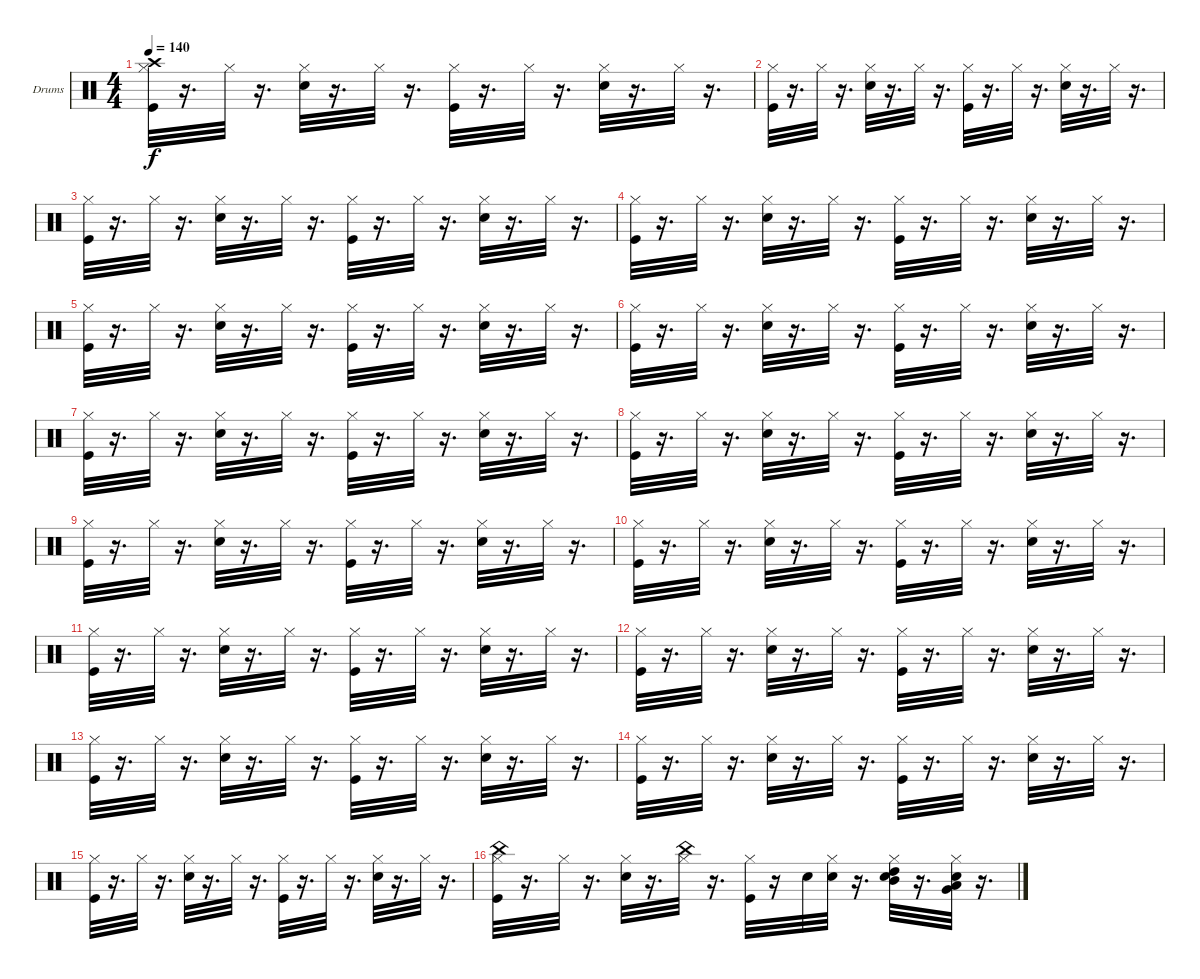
\bracketExtendMode groupsimilarinstruments
\firstSystemTrackNameOrientation horizontal
\otherSystemsTrackNameOrientation horizontal
\track ("" "Drums") {instrument percussion}
\staff {score}
\articulation defaults
\ts (4 4)
\tempo 140
\clef neutral
\ks c
("Hi-Hat (closed)" "Kick (hit)" "Crash high (hit)").32{dy f} r.16{d} "Hi-Hat (closed)".32 r.16{d} ("Snare (hit) 2" "Hi-Hat (closed)").32 r.16{d} "Hi-Hat (closed)".32 r.16{d} ("Kick (hit)" "Hi-Hat (closed)").32 r.16{d} "Hi-Hat (closed)".32 r.16{d} ("Snare (hit) 2" "Hi-Hat (closed)").32 r.16{d} "Hi-Hat (closed)".32 r.16{d} |
("Hi-Hat (closed)" "Kick (hit)").32 r.16{d} "Hi-Hat (closed)".32 r.16{d} ("Snare (hit) 2" "Hi-Hat (closed)").32 r.16{d} "Hi-Hat (closed)".32 r.16{d} ("Kick (hit)" "Hi-Hat (closed)").32 r.16{d} "Hi-Hat (closed)".32 r.16{d} ("Snare (hit) 2" "Hi-Hat (closed)").32 r.16{d} "Hi-Hat (closed)".32 r.16{d} |
("Hi-Hat (closed)" "Kick (hit)").32 r.16{d} "Hi-Hat (closed)".32 r.16{d} ("Snare (hit) 2" "Hi-Hat (closed)").32 r.16{d} "Hi-Hat (closed)".32 r.16{d} ("Kick (hit)" "Hi-Hat (closed)").32 r.16{d} "Hi-Hat (closed)".32 r.16{d} ("Snare (hit) 2" "Hi-Hat (closed)").32 r.16{d} "Hi-Hat (closed)".32 r.16{d} |
("Hi-Hat (closed)" "Kick (hit)").32 r.16{d} "Hi-Hat (closed)".32 r.16{d} ("Snare (hit) 2" "Hi-Hat (closed)").32 r.16{d} "Hi-Hat (closed)".32 r.16{d} ("Kick (hit)" "Hi-Hat (closed)").32 r.16{d} "Hi-Hat (closed)".32 r.16{d} ("Snare (hit) 2" "Hi-Hat (closed)").32 r.16{d} "Hi-Hat (closed)".32 r.16{d} |
("Hi-Hat (closed)" "Kick (hit)").32 r.16{d} "Hi-Hat (closed)".32 r.16{d} ("Snare (hit) 2" "Hi-Hat (closed)").32 r.16{d} "Hi-Hat (closed)".32 r.16{d} ("Kick (hit)" "Hi-Hat (closed)").32 r.16{d} "Hi-Hat (closed)".32 r.16{d} ("Snare (hit) 2" "Hi-Hat (closed)").32 r.16{d} "Hi-Hat (closed)".32 r.16{d} |
("Hi-Hat (closed)" "Kick (hit)").32 r.16{d} "Hi-Hat (closed)".32 r.16{d} ("Snare (hit) 2" "Hi-Hat (closed)").32 r.16{d} "Hi-Hat (closed)".32 r.16{d} ("Kick (hit)" "Hi-Hat (closed)").32 r.16{d} "Hi-Hat (closed)".32 r.16{d} ("Snare (hit) 2" "Hi-Hat (closed)").32 r.16{d} "Hi-Hat (closed)".32 r.16{d} |
("Hi-Hat (closed)" "Kick (hit)").32 r.16{d} "Hi-Hat (closed)".32 r.16{d} ("Snare (hit) 2" "Hi-Hat (closed)").32 r.16{d} "Hi-Hat (closed)".32 r.16{d} ("Kick (hit)" "Hi-Hat (closed)").32 r.16{d} "Hi-Hat (closed)".32 r.16{d} ("Snare (hit) 2" "Hi-Hat (closed)").32 r.16{d} "Hi-Hat (closed)".32 r.16{d} |
("Hi-Hat (closed)" "Kick (hit)").32 r.16{d} "Hi-Hat (closed)".32 r.16{d} ("Snare (hit) 2" "Hi-Hat (closed)").32 r.16{d} "Hi-Hat (closed)".32 r.16{d} ("Kick (hit)" "Hi-Hat (closed)").32 r.16{d} "Hi-Hat (closed)".32 r.16{d} ("Snare (hit) 2" "Hi-Hat (closed)").32 r.16{d} "Hi-Hat (closed)".32 r.16{d} |
("Hi-Hat (closed)" "Kick (hit)").32 r.16{d} "Hi-Hat (closed)".32 r.16{d} ("Snare (hit) 2" "Hi-Hat (closed)").32 r.16{d} "Hi-Hat (closed)".32 r.16{d} ("Kick (hit)" "Hi-Hat (closed)").32 r.16{d} "Hi-Hat (closed)".32 r.16{d} ("Snare (hit) 2" "Hi-Hat (closed)").32 r.16{d} "Hi-Hat (closed)".32 r.16{d} |
("Hi-Hat (closed)" "Kick (hit)").32 r.16{d} "Hi-Hat (closed)".32 r.16{d} ("Snare (hit) 2" "Hi-Hat (closed)").32 r.16{d} "Hi-Hat (closed)".32 r.16{d} ("Kick (hit)" "Hi-Hat (closed)").32 r.16{d} "Hi-Hat (closed)".32 r.16{d} ("Snare (hit) 2" "Hi-Hat (closed)").32 r.16{d} "Hi-Hat (closed)".32 r.16{d} |
("Hi-Hat (closed)" "Kick (hit)").32 r.16{d} "Hi-Hat (closed)".32 r.16{d} ("Snare (hit) 2" "Hi-Hat (closed)").32 r.16{d} "Hi-Hat (closed)".32 r.16{d} ("Kick (hit)" "Hi-Hat (closed)").32 r.16{d} "Hi-Hat (closed)".32 r.16{d} ("Snare (hit) 2" "Hi-Hat (closed)").32 r.16{d} "Hi-Hat (closed)".32 r.16{d} |
("Hi-Hat (closed)" "Kick (hit)").32 r.16{d} "Hi-Hat (closed)".32 r.16{d} ("Snare (hit) 2" "Hi-Hat (closed)").32 r.16{d} "Hi-Hat (closed)".32 r.16{d} ("Kick (hit)" "Hi-Hat (closed)").32 r.16{d} "Hi-Hat (closed)".32 r.16{d} ("Snare (hit) 2" "Hi-Hat (closed)").32 r.16{d} "Hi-Hat (closed)".32 r.16{d} |
("Hi-Hat (closed)" "Kick (hit)").32 r.16{d} "Hi-Hat (closed)".32 r.16{d} ("Snare (hit) 2" "Hi-Hat (closed)").32 r.16{d} "Hi-Hat (closed)".32 r.16{d} ("Kick (hit)" "Hi-Hat (closed)").32 r.16{d} "Hi-Hat (closed)".32 r.16{d} ("Snare (hit) 2" "Hi-Hat (closed)").32 r.16{d} "Hi-Hat (closed)".32 r.16{d} |
("Hi-Hat (closed)" "Kick (hit)").32 r.16{d} "Hi-Hat (closed)".32 r.16{d} ("Snare (hit) 2" "Hi-Hat (closed)").32 r.16{d} "Hi-Hat (closed)".32 r.16{d} ("Kick (hit)" "Hi-Hat (closed)").32 r.16{d} "Hi-Hat (closed)".32 r.16{d} ("Snare (hit) 2" "Hi-Hat (closed)").32 r.16{d} "Hi-Hat (closed)".32 r.16{d} |
("Hi-Hat (closed)" "Kick (hit)").32 r.16{d} "Hi-Hat (closed)".32 r.16{d} ("Snare (hit) 2" "Hi-Hat (closed)").32 r.16{d} "Hi-Hat (closed)".32 r.16{d} ("Kick (hit)" "Hi-Hat (closed)").32 r.16{d} "Hi-Hat (closed)".32 r.16{d} ("Snare (hit) 2" "Hi-Hat (closed)").32 r.16{d} "Hi-Hat (closed)".32 r.16{d} |
("China (hit)" "Hi-Hat (closed)" "Kick (hit)").32 r.16{d} "Hi-Hat (closed)".32 r.16{d} ("Snare (hit) 2" "Hi-Hat (closed)").32 r.16{d} ("China (hit)" "Hi-Hat (closed)").32 r.16{d} ("Kick (hit)" "Hi-Hat (closed)").32 r.16 "Snare (hit) 2".32 ("Hi-Hat (closed)" "Snare (hit) 2").32 r.16{d} ("Snare (hit) 2" "High Tom (hit)" "Mid Tom (hit)" "Hi-Hat (closed)").32 r.16{d} ("Snare (hit) 2" "Very Low Tom (hit)" "Low Tom (hit)" "Hi-Hat (closed)").32 r.16{d}
